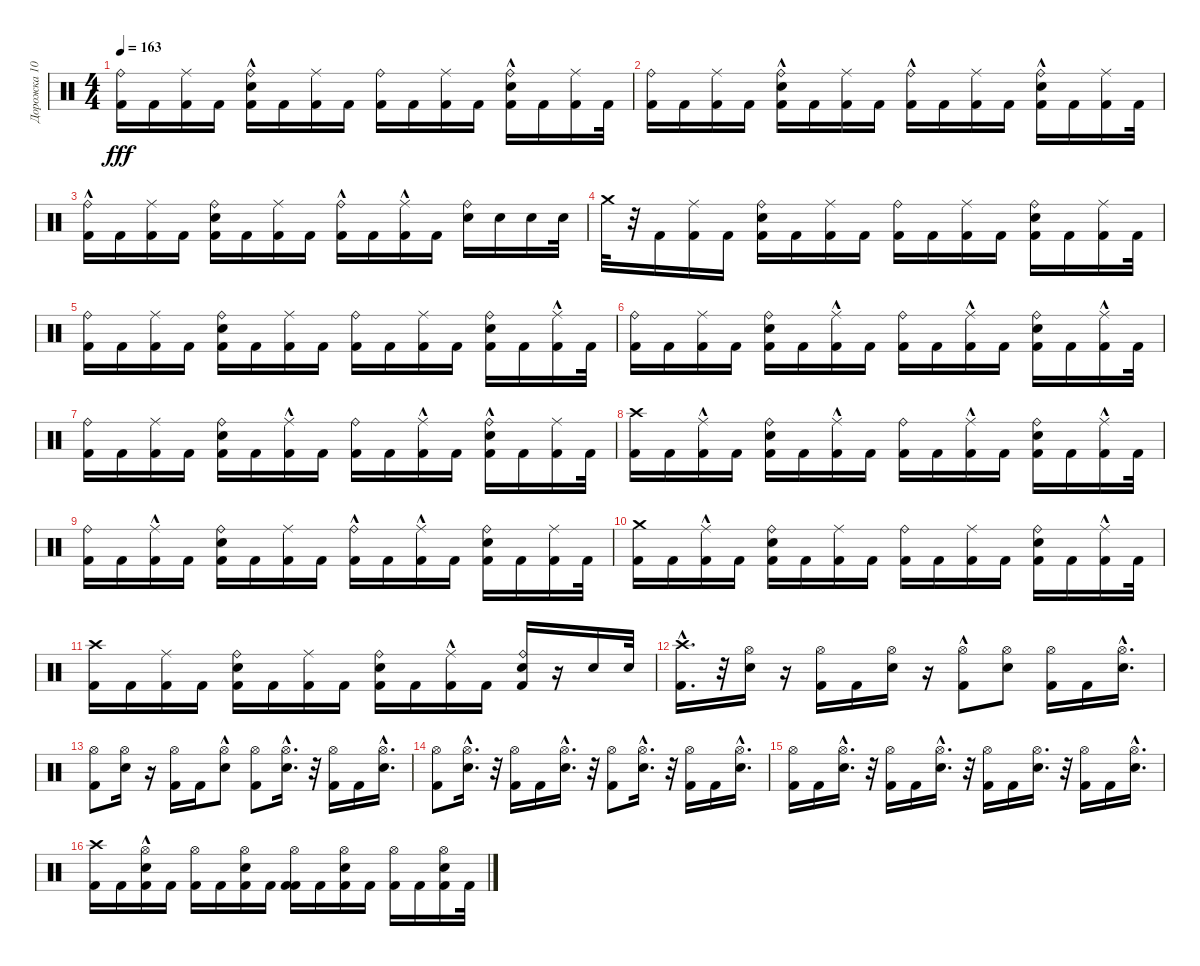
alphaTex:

\track ("Дорожка 10" "Дорожка 10") {instrument percussion}
\staff {score}
\articulation defaults
\ts (4 4)
\tempo 163
\clef neutral
\ks c
("Kick (hit) 2" "Ride (bell)").16{dy fff} "Kick (hit) 2".16 ("Kick (hit) 2" "Ride (middle)").16 "Kick (hit) 2".16 ("Kick (hit) 2" "Ride (bell)"{hac} "Electric Snare (hit)").16 "Kick (hit) 2".16 ("Kick (hit) 2" "Ride (middle)").16 "Kick (hit) 2".16 ("Kick (hit) 2" "Ride (bell)").16 "Kick (hit) 2".16 ("Kick (hit) 2" "Ride (middle)").16 "Kick (hit) 2".16 ("Kick (hit) 2" "Ride (bell)"{hac} "Electric Snare (hit)").16 "Kick (hit) 2".16 ("Kick (hit) 2" "Ride (middle)").16 "Kick (hit) 2".32 |
("Kick (hit) 2" "Ride (bell)").16 "Kick (hit) 2".16 ("Kick (hit) 2" "Ride (middle)").16 "Kick (hit) 2".16 ("Kick (hit) 2" "Ride (bell)"{hac} "Electric Snare (hit)").16 "Kick (hit) 2".16 ("Kick (hit) 2" "Ride (middle)").16 "Kick (hit) 2".16 ("Kick (hit) 2" "Ride (bell)"{hac}).16 "Kick (hit) 2".16 ("Kick (hit) 2" "Ride (middle)").16 "Kick (hit) 2".16 ("Kick (hit) 2" "Ride (bell)"{hac} "Electric Snare (hit)").16 "Kick (hit) 2".16 ("Kick (hit) 2" "Ride (middle)").16 "Kick (hit) 2".32 |
("Kick (hit) 2" "Ride (bell)"{hac}).16 "Kick (hit) 2".16 ("Kick (hit) 2" "Ride (middle)").16 "Kick (hit) 2".16 ("Kick (hit) 2" "Ride (bell)" "Electric Snare (hit)").16 "Kick (hit) 2".16 ("Kick (hit) 2" "Ride (middle)").16 "Kick (hit) 2".16 ("Kick (hit) 2" "Ride (bell)"{hac}).16 "Kick (hit) 2".16 ("Kick (hit) 2" "Ride (middle)"{hac}).16 "Kick (hit) 2".16 ("Ride (bell)" "Electric Snare (hit)").16 "Electric Snare (hit)".16 "Electric Snare (hit)".16 "Electric Snare (hit)".32 |
"Crash medium (hit)".32 r.32 "Kick (hit) 2".16 ("Kick (hit) 2" "Ride (middle)").16 "Kick (hit) 2".16 ("Kick (hit) 2" "Ride (bell)" "Electric Snare (hit)").16 "Kick (hit) 2".16 ("Kick (hit) 2" "Ride (middle)").16 "Kick (hit) 2".16 ("Kick (hit) 2" "Ride (bell)").16 "Kick (hit) 2".16 ("Kick (hit) 2" "Ride (middle)").16 "Kick (hit) 2".16 ("Kick (hit) 2" "Ride (bell)" "Electric Snare (hit)").16 "Kick (hit) 2".16 ("Kick (hit) 2" "Ride (middle)").16 "Kick (hit) 2".32 |
("Kick (hit) 2" "Ride (bell)").16 "Kick (hit) 2".16 ("Kick (hit) 2" "Ride (middle)").16 "Kick (hit) 2".16 ("Kick (hit) 2" "Ride (bell)" "Electric Snare (hit)").16 "Kick (hit) 2".16 ("Kick (hit) 2" "Ride (middle)").16 "Kick (hit) 2".16 ("Kick (hit) 2" "Ride (bell)").16 "Kick (hit) 2".16 ("Kick (hit) 2" "Ride (middle)").16 "Kick (hit) 2".16 ("Kick (hit) 2" "Ride (bell)" "Electric Snare (hit)").16 "Kick (hit) 2".16 ("Kick (hit) 2" "Ride (middle)"{hac}).16 "Kick (hit) 2".32 |
("Kick (hit) 2" "Ride (bell)").16 "Kick (hit) 2".16 ("Kick (hit) 2" "Ride (middle)").16 "Kick (hit) 2".16 ("Kick (hit) 2" "Ride (bell)" "Electric Snare (hit)").16 "Kick (hit) 2".16 ("Kick (hit) 2" "Ride (middle)"{hac}).16 "Kick (hit) 2".16 ("Kick (hit) 2" "Ride (bell)").16 "Kick (hit) 2".16 ("Kick (hit) 2" "Ride (middle)"{hac}).16 "Kick (hit) 2".16 ("Kick (hit) 2" "Ride (bell)" "Electric Snare (hit)").16 "Kick (hit) 2".16 ("Kick (hit) 2" "Ride (middle)"{hac}).16 "Kick (hit) 2".32 |
("Kick (hit) 2" "Ride (bell)").16 "Kick (hit) 2".16 ("Kick (hit) 2" "Ride (middle)").16 "Kick (hit) 2".16 ("Kick (hit) 2" "Ride (bell)" "Electric Snare (hit)").16 "Kick (hit) 2".16 ("Kick (hit) 2" "Ride (middle)"{hac}).16 "Kick (hit) 2".16 ("Kick (hit) 2" "Ride (bell)").16 "Kick (hit) 2".16 ("Kick (hit) 2" "Ride (middle)"{hac}).16 "Kick (hit) 2".16 ("Kick (hit) 2" "Ride (bell)"{hac} "Electric Snare (hit)").16 "Kick (hit) 2".16 ("Kick (hit) 2" "Ride (middle)").16 "Kick (hit) 2".32 |
("Kick (hit) 2" "Crash high (hit)").16 "Kick (hit) 2".16 ("Kick (hit) 2" "Ride (middle)"{hac}).16 "Kick (hit) 2".16 ("Kick (hit) 2" "Ride (bell)" "Electric Snare (hit)").16 "Kick (hit) 2".16 ("Kick (hit) 2" "Ride (middle)"{hac}).16 "Kick (hit) 2".16 ("Kick (hit) 2" "Ride (bell)").16 "Kick (hit) 2".16 ("Kick (hit) 2" "Ride (middle)"{hac}).16 "Kick (hit) 2".16 ("Kick (hit) 2" "Ride (bell)" "Electric Snare (hit)").16 "Kick (hit) 2".16 ("Kick (hit) 2" "Ride (middle)"{hac}).16 "Kick (hit) 2".32 |
("Kick (hit) 2" "Ride (bell)").16 "Kick (hit) 2".16 ("Kick (hit) 2" "Ride (middle)"{hac}).16 "Kick (hit) 2".16 ("Kick (hit) 2" "Ride (bell)" "Electric Snare (hit)").16 "Kick (hit) 2".16 ("Kick (hit) 2" "Ride (middle)").16 "Kick (hit) 2".16 ("Kick (hit) 2" "Ride (bell)"{hac}).16 "Kick (hit) 2".16 ("Kick (hit) 2" "Ride (middle)"{hac}).16 "Kick (hit) 2".16 ("Kick (hit) 2" "Ride (bell)" "Electric Snare (hit)").16 "Kick (hit) 2".16 ("Kick (hit) 2" "Ride (middle)").16 "Kick (hit) 2".32 |
("Kick (hit) 2" "Crash medium (hit)").16 "Kick (hit) 2".16 ("Kick (hit) 2" "Ride (middle)"{hac}).16 "Kick (hit) 2".16 ("Kick (hit) 2" "Ride (bell)" "Electric Snare (hit)").16 "Kick (hit) 2".16 ("Kick (hit) 2" "Ride (middle)").16 "Kick (hit) 2".16 ("Kick (hit) 2" "Ride (bell)").16 "Kick (hit) 2".16 ("Kick (hit) 2" "Ride (middle)").16 "Kick (hit) 2".16 ("Kick (hit) 2" "Ride (bell)" "Electric Snare (hit)").16 "Kick (hit) 2".16 ("Kick (hit) 2" "Ride (middle)"{hac}).16 "Kick (hit) 2".32 |
("Kick (hit) 2" "Crash high (hit)").16 "Kick (hit) 2".16 ("Kick (hit) 2" "Ride (middle)").16 "Kick (hit) 2".16 ("Kick (hit) 2" "Ride (bell)" "Electric Snare (hit)").16 "Kick (hit) 2".16 ("Kick (hit) 2" "Ride (middle)").16 "Kick (hit) 2".16 ("Kick (hit) 2" "Ride (bell)" "Electric Snare (hit)").16 "Kick (hit) 2".16 ("Kick (hit) 2" "Ride (middle)"{hac}).16 "Kick (hit) 2".16 ("Kick (hit) 2" "Ride (bell)" "Electric Snare (hit)").16 r.16 "Electric Snare (hit)".16 "Electric Snare (hit)".32 |
("Kick (hit) 2"{hac} "Crash high (hit)").16{d} r.32 ("Electric Snare (hit)" "Hi-Hat (open)").16 r.16 ("Kick (hit) 2" "Hi-Hat (open)").16 "Kick (hit) 2".16 ("Electric Snare (hit)" "Hi-Hat (open)").16 r.16 ("Kick (hit) 2"{hac} "Hi-Hat (open)").8 ("Electric Snare (hit)" "Hi-Hat (open)").8 ("Kick (hit) 2" "Hi-Hat (open)").16 "Kick (hit) 2".16 ("Electric Snare (hit)"{hac} "Hi-Hat (open)").16{d} |
("Kick (hit) 2" "Hi-Hat (open)").8 ("Electric Snare (hit)" "Hi-Hat (open)").16 r.16 ("Kick (hit) 2" "Hi-Hat (open)").16 "Kick (hit) 2".16 ("Electric Snare (hit)" "Hi-Hat (open)"{hac}).8 ("Kick (hit) 2" "Hi-Hat (open)").8 ("Electric Snare (hit)"{hac} "Hi-Hat (open)").16{d} r.32 ("Kick (hit) 2" "Hi-Hat (open)").16 "Kick (hit) 2".16 ("Electric Snare (hit)"{hac} "Hi-Hat (open)").16{d} |
("Kick (hit) 2" "Hi-Hat (open)").8 ("Hi-Hat (open)" "Electric Snare (hit)"{hac}).16{d} r.32 ("Kick (hit) 2" "Hi-Hat (open)").16 "Kick (hit) 2".16 ("Electric Snare (hit)"{hac} "Hi-Hat (open)").16{d} r.32 ("Kick (hit) 2" "Hi-Hat (open)").8 ("Electric Snare (hit)"{hac} "Hi-Hat (open)").16{d} r.32 ("Kick (hit) 2" "Hi-Hat (open)").16 "Kick (hit) 2".16 ("Electric Snare (hit)"{hac} "Hi-Hat (open)").16{d} |
("Kick (hit) 2" "Hi-Hat (open)").16 "Kick (hit) 2".16 ("Electric Snare (hit)"{hac} "Hi-Hat (open)").16{d} r.32 ("Kick (hit) 2" "Hi-Hat (open)").16 "Kick (hit) 2".16 ("Hi-Hat (open)" "Electric Snare (hit)"{hac}).16{d} r.32 ("Hi-Hat (open)" "Kick (hit) 2").16 "Kick (hit) 2".16 ("Hi-Hat (open)" "Electric Snare (hit)").16{d} r.32 ("Hi-Hat (open)" "Kick (hit) 2").16 "Kick (hit) 2".16 ("Hi-Hat (open)"{hac} "Electric Snare (hit)").16{d} |
("Crash high (hit)" "Kick (hit) 2").16 "Kick (hit) 2".16 ("Hi-Hat (open)" "Electric Snare (hit)"{hac} "Kick (hit) 2").16 "Kick (hit) 2".16 ("Hi-Hat (open)" "Kick (hit) 2").16 "Kick (hit) 2".16 ("Kick (hit) 2" "Hi-Hat (open)" "Electric Snare (hit)").16 "Kick (hit) 2".16 ("Kick (hit) 2" "Hi-Hat (open)" "Kick (hit) 2").16 "Kick (hit) 2".16 ("Kick (hit) 2" "Hi-Hat (open)" "Electric Snare (hit)").16 "Kick (hit) 2".16 ("Hi-Hat (open)" "Kick (hit) 2").16 "Kick (hit) 2".16 ("Hi-Hat (open)" "Electric Snare (hit)" "Kick (hit) 2").16 "Kick (hit) 2".32
